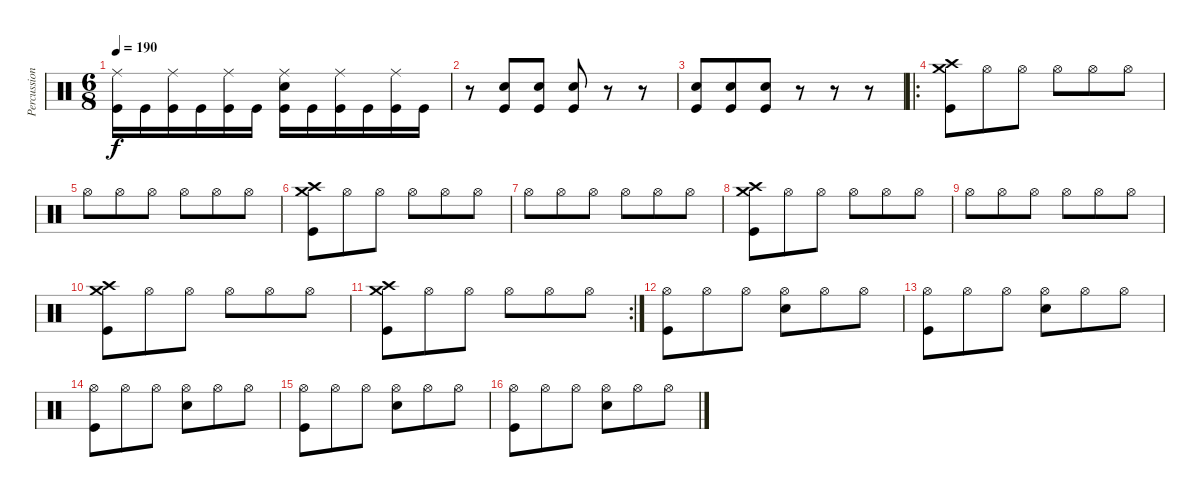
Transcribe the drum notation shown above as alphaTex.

\track ("Percussion" "Percussion") {instrument percussion}
\staff {score}
\articulation defaults
\ts (6 8)
\tempo 190
\clef neutral
\ks c
("Ride (middle)" "Kick (hit)").16{dy f} "Kick (hit)".16 ("Ride (middle)" "Kick (hit)").16 "Kick (hit)".16 ("Ride (middle)" "Kick (hit)").16 "Kick (hit)".16 ("Ride (middle)" "Snare (hit) 2" "Kick (hit)").16 "Kick (hit)".16 ("Ride (middle)" "Kick (hit)").16 "Kick (hit)".16 ("Ride (middle)" "Kick (hit)").16 "Kick (hit)".16 |
r.8 ("Snare (hit) 2" "Kick (hit)").8 ("Snare (hit) 2" "Kick (hit)").8 ("Snare (hit) 2" "Kick (hit)").8 r.8 r.8 |
("Snare (hit) 2" "Kick (hit)").8 ("Snare (hit) 2" "Kick (hit)").8 ("Snare (hit) 2" "Kick (hit)").8 r.8 r.8 r.8 |
\ro
("Crash medium (hit)" "Crash high (hit)" "Kick (hit)").8 "Hi-Hat (open)".8 "Hi-Hat (open)".8 "Hi-Hat (open)".8 "Hi-Hat (open)".8 "Hi-Hat (open)".8 |
"Hi-Hat (open)".8 "Hi-Hat (open)".8 "Hi-Hat (open)".8 "Hi-Hat (open)".8 "Hi-Hat (open)".8 "Hi-Hat (open)".8 |
("Crash medium (hit)" "Crash high (hit)" "Kick (hit)").8 "Hi-Hat (open)".8 "Hi-Hat (open)".8 "Hi-Hat (open)".8 "Hi-Hat (open)".8 "Hi-Hat (open)".8 |
"Hi-Hat (open)".8 "Hi-Hat (open)".8 "Hi-Hat (open)".8 "Hi-Hat (open)".8 "Hi-Hat (open)".8 "Hi-Hat (open)".8 |
("Crash medium (hit)" "Crash high (hit)" "Kick (hit)").8 "Hi-Hat (open)".8 "Hi-Hat (open)".8 "Hi-Hat (open)".8 "Hi-Hat (open)".8 "Hi-Hat (open)".8 |
"Hi-Hat (open)".8 "Hi-Hat (open)".8 "Hi-Hat (open)".8 "Hi-Hat (open)".8 "Hi-Hat (open)".8 "Hi-Hat (open)".8 |
("Crash medium (hit)" "Crash high (hit)" "Kick (hit)").8 "Hi-Hat (open)".8 "Hi-Hat (open)".8 "Hi-Hat (open)".8 "Hi-Hat (open)".8 "Hi-Hat (open)".8 |
\rc 2
("Crash medium (hit)" "Crash high (hit)" "Kick (hit)").8 "Hi-Hat (open)".8 "Hi-Hat (open)".8 "Hi-Hat (open)".8 "Hi-Hat (open)".8 "Hi-Hat (open)".8 |
("Hi-Hat (open)" "Kick (hit)").8 "Hi-Hat (open)".8 "Hi-Hat (open)".8 ("Hi-Hat (open)" "Snare (hit) 2").8 "Hi-Hat (open)".8 "Hi-Hat (open)".8 |
("Hi-Hat (open)" "Kick (hit)").8 "Hi-Hat (open)".8 "Hi-Hat (open)".8 ("Hi-Hat (open)" "Snare (hit) 2").8 "Hi-Hat (open)".8 "Hi-Hat (open)".8 |
("Hi-Hat (open)" "Kick (hit)").8 "Hi-Hat (open)".8 "Hi-Hat (open)".8 ("Hi-Hat (open)" "Snare (hit) 2").8 "Hi-Hat (open)".8 "Hi-Hat (open)".8 |
("Hi-Hat (open)" "Kick (hit)").8 "Hi-Hat (open)".8 "Hi-Hat (open)".8 ("Hi-Hat (open)" "Snare (hit) 2").8 "Hi-Hat (open)".8 "Hi-Hat (open)".8 |
("Hi-Hat (open)" "Kick (hit)").8 "Hi-Hat (open)".8 "Hi-Hat (open)".8 ("Hi-Hat (open)" "Snare (hit) 2").8 "Hi-Hat (open)".8 "Hi-Hat (open)".8
